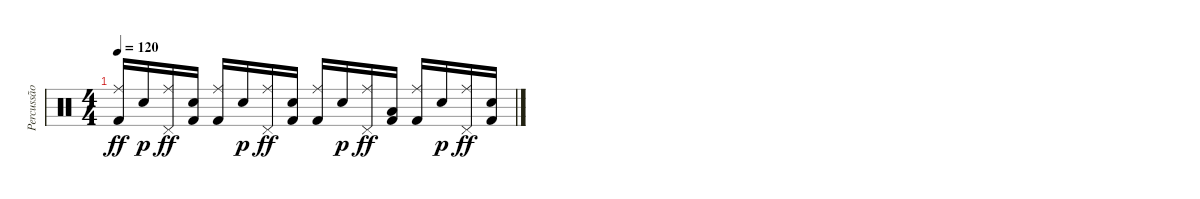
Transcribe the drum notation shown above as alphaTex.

\track ("Percussão" "Percussão") {instrument percussion}
\staff {score}
\articulation defaults
\ts (4 4)
\tempo 120
\clef neutral
\ks c
("Ride (middle)" "Kick (hit) 2").16{dy ff} "Snare (hit) 2".16{dy p} ("Ride (middle)" "Pedal Hi-Hat (hit)").16{dy ff} ("Snare (hit) 2" "Kick (hit) 2").16 ("Ride (middle)" "Kick (hit) 2").16 "Snare (hit) 2".16{dy p} ("Ride (middle)" "Pedal Hi-Hat (hit)").16{dy ff} ("Snare (hit) 2" "Kick (hit) 2").16 ("Ride (middle)" "Kick (hit) 2").16 "Snare (hit) 2".16{dy p} ("Ride (middle)" "Pedal Hi-Hat (hit)").16{dy ff} ("Low Tom (hit)" "Kick (hit) 2").16 ("Ride (middle)" "Kick (hit) 2").16 "Snare (hit) 2".16{dy p} ("Ride (middle)" "Pedal Hi-Hat (hit)").16{dy ff} ("Snare (hit) 2" "Kick (hit) 2").16
